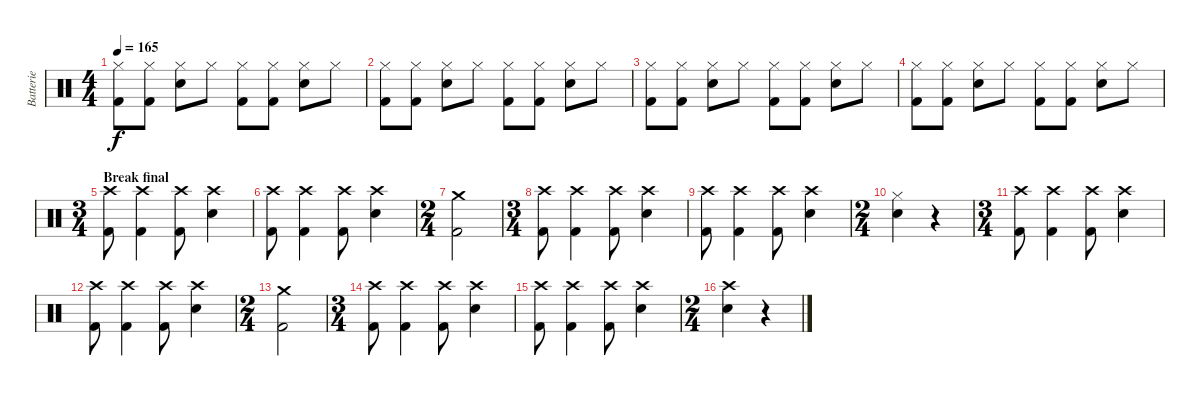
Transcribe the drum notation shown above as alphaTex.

\track ("Batterie" "Batterie") {instrument percussion}
\staff {score}
\articulation defaults
\ts (4 4)
\tempo 165
\clef neutral
\ks c
("Hi-Hat (closed)" "Kick (hit) 2").8{dy f} ("Hi-Hat (closed)" "Kick (hit) 2").8 ("Hi-Hat (closed)" "Electric Snare (hit)").8 "Hi-Hat (closed)".8 ("Hi-Hat (closed)" "Kick (hit) 2").8 ("Hi-Hat (closed)" "Kick (hit) 2").8 ("Hi-Hat (closed)" "Electric Snare (hit)").8 "Hi-Hat (closed)".8 |
("Hi-Hat (closed)" "Kick (hit) 2").8 ("Hi-Hat (closed)" "Kick (hit) 2").8 ("Hi-Hat (closed)" "Electric Snare (hit)").8 "Hi-Hat (closed)".8 ("Hi-Hat (closed)" "Kick (hit) 2").8 ("Hi-Hat (closed)" "Kick (hit) 2").8 ("Hi-Hat (closed)" "Electric Snare (hit)").8 "Hi-Hat (closed)".8 |
("Hi-Hat (closed)" "Kick (hit) 2").8 ("Hi-Hat (closed)" "Kick (hit) 2").8 ("Hi-Hat (closed)" "Electric Snare (hit)").8 "Hi-Hat (closed)".8 ("Hi-Hat (closed)" "Kick (hit) 2").8 ("Hi-Hat (closed)" "Kick (hit) 2").8 ("Hi-Hat (closed)" "Electric Snare (hit)").8 "Hi-Hat (closed)".8 |
("Hi-Hat (closed)" "Kick (hit) 2").8 ("Hi-Hat (closed)" "Kick (hit) 2").8 ("Hi-Hat (closed)" "Electric Snare (hit)").8 "Hi-Hat (closed)".8 ("Hi-Hat (closed)" "Kick (hit) 2").8 ("Hi-Hat (closed)" "Kick (hit) 2").8 ("Hi-Hat (closed)" "Electric Snare (hit)").8 "Hi-Hat (closed)".8 |
\ts (3 4)
\section ("" "Break final")
("Crash high (hit)" "Kick (hit) 2").8 ("Crash high (hit)" "Kick (hit) 2").4 ("Crash high (hit)" "Kick (hit) 2").8 ("Crash high (hit)" "Snare (hit) 2").4 |
("Crash high (hit)" "Kick (hit) 2").8 ("Crash high (hit)" "Kick (hit) 2").4 ("Crash high (hit)" "Kick (hit) 2").8 ("Crash high (hit)" "Snare (hit) 2").4 |
\ts (2 4)
("Crash medium (hit)" "Kick (hit) 2").2 |
\ts (3 4)
("Crash high (hit)" "Kick (hit) 2").8 ("Crash high (hit)" "Kick (hit) 2").4 ("Crash high (hit)" "Kick (hit) 2").8 ("Crash high (hit)" "Snare (hit) 2").4 |
("Crash high (hit)" "Kick (hit) 2").8 ("Crash high (hit)" "Kick (hit) 2").4 ("Crash high (hit)" "Kick (hit) 2").8 ("Crash high (hit)" "Snare (hit) 2").4 |
\ts (2 4)
("Hi-Hat (closed)" "Snare (hit) 2").4 r.4 |
\ts (3 4)
("Crash high (hit)" "Kick (hit) 2").8 ("Crash high (hit)" "Kick (hit) 2").4 ("Crash high (hit)" "Kick (hit) 2").8 ("Crash high (hit)" "Snare (hit) 2").4 |
("Crash high (hit)" "Kick (hit) 2").8 ("Crash high (hit)" "Kick (hit) 2").4 ("Crash high (hit)" "Kick (hit) 2").8 ("Crash high (hit)" "Snare (hit) 2").4 |
\ts (2 4)
("Crash medium (hit)" "Kick (hit) 2").2 |
\ts (3 4)
("Crash high (hit)" "Kick (hit) 2").8 ("Crash high (hit)" "Kick (hit) 2").4 ("Crash high (hit)" "Kick (hit) 2").8 ("Crash high (hit)" "Snare (hit) 2").4 |
("Crash high (hit)" "Kick (hit) 2").8 ("Crash high (hit)" "Kick (hit) 2").4 ("Crash high (hit)" "Kick (hit) 2").8 ("Crash high (hit)" "Snare (hit) 2").4 |
\ts (2 4)
("Crash high (hit)" "Snare (hit) 2").4 r.4
